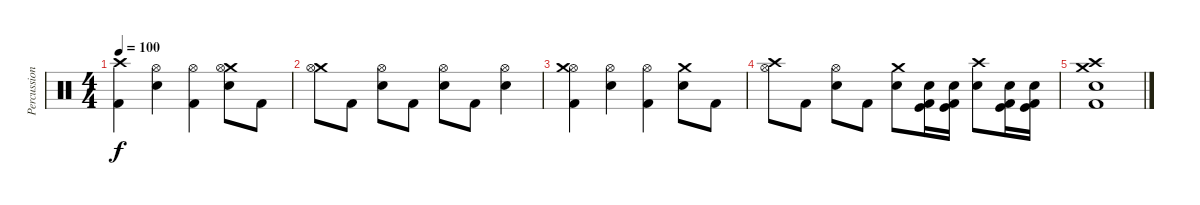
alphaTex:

\track ("Percussions" "Percussion") {instrument percussion}
\staff {score}
\articulation defaults
\ts (4 4)
\tempo 100
\clef neutral
\ks c
("Crash high (hit)" "Kick (hit) 2").4{dy f} ("Hi-Hat (open)" "Snare (hit) 2").4 ("Hi-Hat (open)" "Kick (hit) 2").4 ("Crash medium (hit)" "Hi-Hat (open)" "Snare (hit) 2").8 "Kick (hit) 2".8 |
("Crash medium (hit)" "Hi-Hat (open)").8 "Kick (hit) 2".8 ("Hi-Hat (open)" "Snare (hit) 2").8 "Kick (hit) 2".8 ("Hi-Hat (open)" "Snare (hit) 2").8 "Kick (hit) 2".8 ("Hi-Hat (open)" "Snare (hit) 2").4 |
("Hi-Hat (open)" "Crash medium (hit)" "Kick (hit) 2").4 ("Hi-Hat (open)" "Snare (hit) 2").4 ("Hi-Hat (open)" "Kick (hit) 2").4 ("Crash medium (hit)" "Snare (hit) 2").8 "Kick (hit) 2".8 |
("Crash high (hit)" "Hi-Hat (open)").8 "Kick (hit) 2".8 ("Hi-Hat (open)" "Snare (hit) 2").8 "Kick (hit) 2".8 ("Crash medium (hit)" "Snare (hit) 2").8 ("Snare (hit) 2" "Kick (hit)" "Kick (hit) 2").16 ("Snare (hit) 2" "Kick (hit)" "Kick (hit) 2").16 ("Crash high (hit)" "Snare (hit) 2").8 ("Snare (hit) 2" "Kick (hit)" "Kick (hit) 2").16 ("Snare (hit) 2" "Kick (hit)" "Kick (hit) 2").16 |
("Crash high (hit)" "Crash medium (hit)" "Snare (hit) 2" "Kick (hit) 2").1
